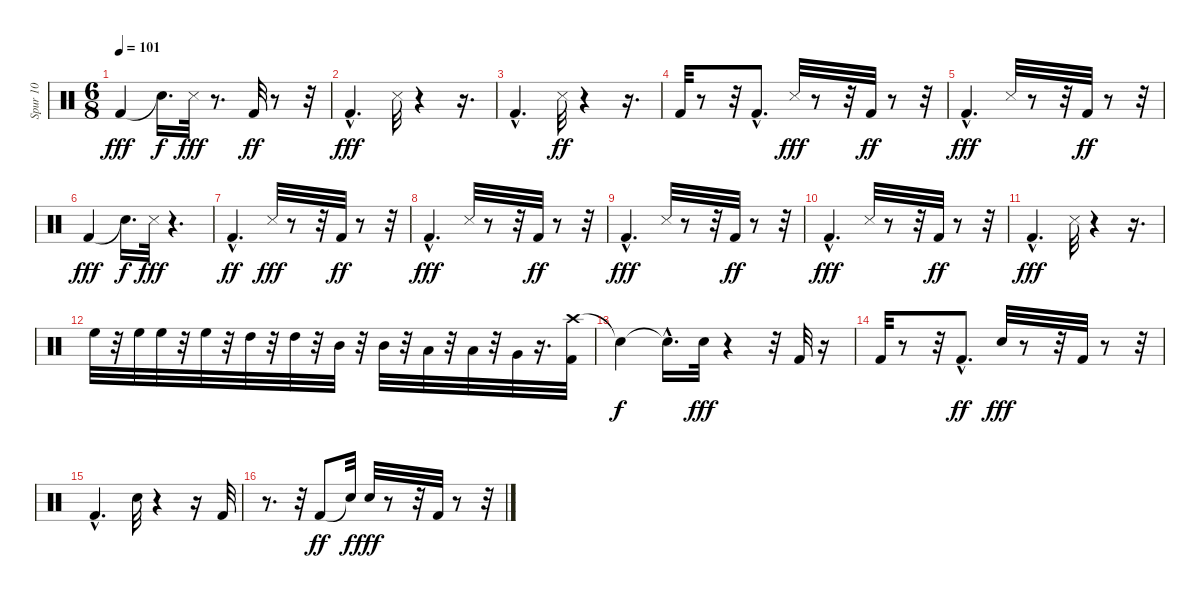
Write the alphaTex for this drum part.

\track ("Spur 10" "Spur 10") {instrument percussion}
\staff {score}
\articulation defaults
\ts (6 8)
\tempo 101
\clef neutral
\ks c "Kick (hit) 2".4{dy fff} "Snare (hit)"{t}.16{d dy f} "Snare (side stick) 3".32{dy fff}
r.8{d} "Kick (hit) 2".32{dy ff} r.8 r.32 |
"Kick (hit) 2"{hac}.4{d dy fff} "Snare (side stick) 3".32 r.4 r.16{d} |
"Kick (hit) 2"{hac}.4{d} "Snare (side stick) 3".32{dy ff} r.4 r.16{d} |
"Kick (hit) 2".32 r.8 r.32 "Kick (hit) 2"{hac}.8{d} "Snare (side stick) 3".32{dy fff} r.8 r.32 "Kick (hit) 2".32{dy ff} r.8 r.32 |
"Kick (hit) 2"{hac}.4{d dy fff} "Snare (side stick) 3".32 r.8 r.32 "Kick (hit) 2".32{dy ff} r.8 r.32 |
"Kick (hit) 2".4{dy fff} "Snare (hit)"{t}.16{d dy f} "Snare (side stick) 3".32{dy fff} r.4{d} |
"Kick (hit) 2"{hac}.4{d dy ff} "Snare (side stick) 3".32{dy fff} r.8 r.32 "Kick (hit) 2".32{dy ff} r.8 r.32 |
"Kick (hit) 2"{hac}.4{d dy fff} "Snare (side stick) 3".32 r.8 r.32 "Kick (hit) 2".32{dy ff} r.8 r.32 |
"Kick (hit) 2"{hac}.4{d dy fff} "Snare (side stick) 3".32 r.8 r.32 "Kick (hit) 2".32{dy ff} r.8 r.32 |
"Kick (hit) 2"{hac}.4{d dy fff} "Snare (side stick) 3".32 r.8 r.32 "Kick (hit) 2".32{dy ff} r.8 r.32 |
"Kick (hit) 2"{hac}.4{d dy fff} "Snare (side stick) 3".32 r.4 r.16{d} |
"High Floor Tom (hit)".32 r.32 "High Floor Tom (hit)".32 "High Floor Tom (hit)".32 r.32 "High Floor Tom (hit)".32 r.32 "High Tom (hit)".32 r.32 "High Tom (hit)".32 r.32 "Mid Tom (hit)".32 r.32 "Mid Tom (hit)".32 r.32 "Low Tom (hit)".32 r.32 "Low Tom (hit)".32 r.32 "Very Low Tom (hit)".32 r.16{d} ("Crash high (hit)" "Kick (hit) 2").32 |
"Snare (hit)"{t}.4{dy f} "Snare (hit)"{hac t}.16{d} "Electric Snare (hit)".32{dy fff} r.4 r.32 "Kick (hit) 2".32 r.16 |
"Kick (hit) 2".32 r.8 r.32 "Kick (hit) 2"{hac}.8{d dy ff} "Electric Snare (hit)".32{dy fff} r.8 r.32 "Kick (hit) 2".32 r.8 r.32 |
"Kick (hit) 2"{hac}.4{d} "Electric Snare (hit)".32 r.4 r.16 "Kick (hit) 2".32 |
r.8{d} r.32 "Kick (hit) 2".8{dy ff} "Snare (hit)"{t}.32{dy f} "Electric Snare (hit)".32{dy fff} r.8 r.32 "Kick (hit) 2".32 r.8 r.32
